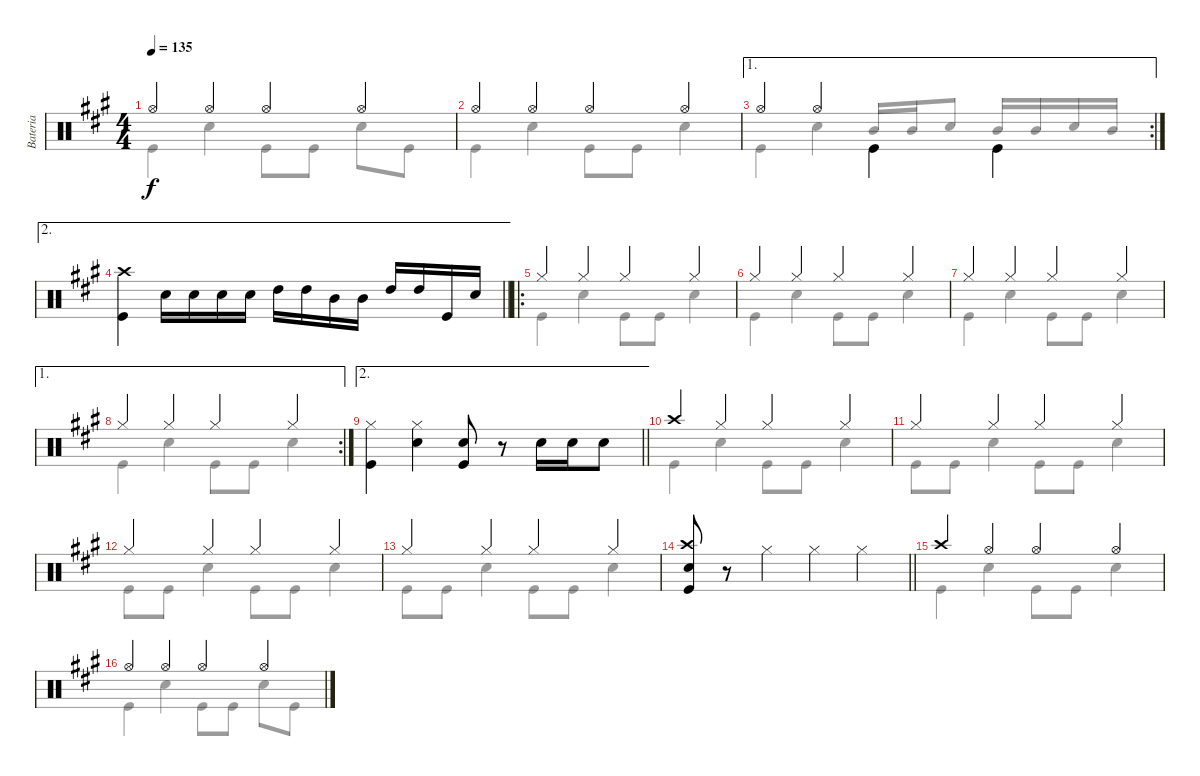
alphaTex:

\track ("Bateria" "Bateria") {instrument percussion}
\staff {score}
\articulation defaults
\voice
\ts (4 4)
\tempo 135
\clef neutral
\ks a "Hi-Hat (open)".4{dy f} "Hi-Hat (open)".4 "Hi-Hat (open)".4 "Hi-Hat (open)".4
|
"Hi-Hat (open)".4 "Hi-Hat (open)".4 "Hi-Hat (open)".4 "Hi-Hat (open)".4 |
\ae 1
\rc 2 "Hi-Hat (open)".4 "Hi-Hat (open)".4 "Kick (hit)".4{beam Down} "Kick (hit)".4{beam Down}
|
\ae 2
\barLineRight lightlight
("Crash high (hit)" "Kick (hit)").4 "Snare (hit) 2".16 "Snare (hit) 2".16 "Snare (hit) 2".16 "Snare (hit) 2".16 "High Tom (hit)".16 "High Tom (hit)".16 "Mid Tom (hit)".16 "Mid Tom (hit)".16 "High Tom (hit)".16 "High Tom (hit)".16 "Kick (hit)".16 "Snare (hit) 2".16 |
\ro "Hi-Hat (closed)".4 "Hi-Hat (closed)".4 "Hi-Hat (closed)".4 "Hi-Hat (closed)".4
|
"Hi-Hat (closed)".4 "Hi-Hat (closed)".4 "Hi-Hat (closed)".4 "Hi-Hat (closed)".4 |
"Hi-Hat (closed)".4 "Hi-Hat (closed)".4 "Hi-Hat (closed)".4 "Hi-Hat (closed)".4 |
\ae 1
\rc 2 "Hi-Hat (closed)".4 "Hi-Hat (closed)".4 "Hi-Hat (closed)".4 "Hi-Hat (closed)".4
|
\ae 2
\barLineRight lightlight
("Hi-Hat (closed)" "Kick (hit)").4 ("Hi-Hat (closed)" "Snare (hit) 2").4 ("Snare (hit) 2" "Kick (hit)").8 r.8 "Snare (hit) 2".16 "Snare (hit) 2".16 "Snare (hit) 2".8 |
"Crash high (hit)".4 "Hi-Hat (closed)".4 "Hi-Hat (closed)".4 "Hi-Hat (closed)".4 |
"Hi-Hat (closed)".4 "Hi-Hat (closed)".4 "Hi-Hat (closed)".4 "Hi-Hat (closed)".4 |
"Hi-Hat (closed)".4 "Hi-Hat (closed)".4 "Hi-Hat (closed)".4 "Hi-Hat (closed)".4 |
"Hi-Hat (closed)".4 "Hi-Hat (closed)".4 "Hi-Hat (closed)".4 "Hi-Hat (closed)".4 |
\barLineRight lightlight
("Crash high (hit)" "Snare (hit) 2" "Kick (hit)").8 r.8 "Hi-Hat (closed)".4 "Hi-Hat (closed)".4 "Hi-Hat (closed)".4 |
"Crash high (hit)".4 "Hi-Hat (open)".4 "Hi-Hat (open)".4 "Hi-Hat (open)".4 |
"Hi-Hat (open)".4 "Hi-Hat (open)".4 "Hi-Hat (open)".4 "Hi-Hat (open)".4
\voice
\clef neutral
\ottava regular
\simile none
\ks a "Kick (hit)".4{dy f} "Snare (hit) 2".4 "Kick (hit)".8 "Kick (hit)".8 "Snare (hit) 2".8 "Kick (hit)".8
|
"Kick (hit)".4 "Snare (hit) 2".4 "Kick (hit)".8 "Kick (hit)".8 "Snare (hit) 2".4 |
"Kick (hit)".4 "Snare (hit) 2".4 "Mid Tom (hit)".16{beam Up} "Mid Tom (hit)".16{beam Up} "Snare (hit) 2".8{beam Up} "Mid Tom (hit)".16{beam Up} "Mid Tom (hit)".16{beam Up} "Snare (hit) 2".16{beam Up} "Mid Tom (hit)".16{beam Up} |
\barLineRight lightlight
|
"Kick (hit)".4 "Snare (hit) 2".4 "Kick (hit)".8 "Kick (hit)".8 "Snare (hit) 2".4 |
"Kick (hit)".4 "Snare (hit) 2".4 "Kick (hit)".8 "Kick (hit)".8 "Snare (hit) 2".4 |
"Kick (hit)".4 "Snare (hit) 2".4 "Kick (hit)".8 "Kick (hit)".8 "Snare (hit) 2".4 |
"Kick (hit)".4 "Snare (hit) 2".4 "Kick (hit)".8 "Kick (hit)".8 "Snare (hit) 2".4 |
\barLineRight lightlight
|
"Kick (hit)".4 "Snare (hit) 2".4 "Kick (hit)".8 "Kick (hit)".8 "Snare (hit) 2".4 |
"Kick (hit)".8 "Kick (hit)".8 "Snare (hit) 2".4 "Kick (hit)".8 "Kick (hit)".8 "Snare (hit) 2".4 |
"Kick (hit)".8 "Kick (hit)".8 "Snare (hit) 2".4 "Kick (hit)".8 "Kick (hit)".8 "Snare (hit) 2".4 |
"Kick (hit)".8 "Kick (hit)".8 "Snare (hit) 2".4 "Kick (hit)".8 "Kick (hit)".8 "Snare (hit) 2".4 |
\barLineRight lightlight
|
"Kick (hit)".4 "Snare (hit) 2".4 "Kick (hit)".8 "Kick (hit)".8 "Snare (hit) 2".4 |
"Kick (hit)".4 "Snare (hit) 2".4 "Kick (hit)".8 "Kick (hit)".8 "Snare (hit) 2".8 "Kick (hit)".8
